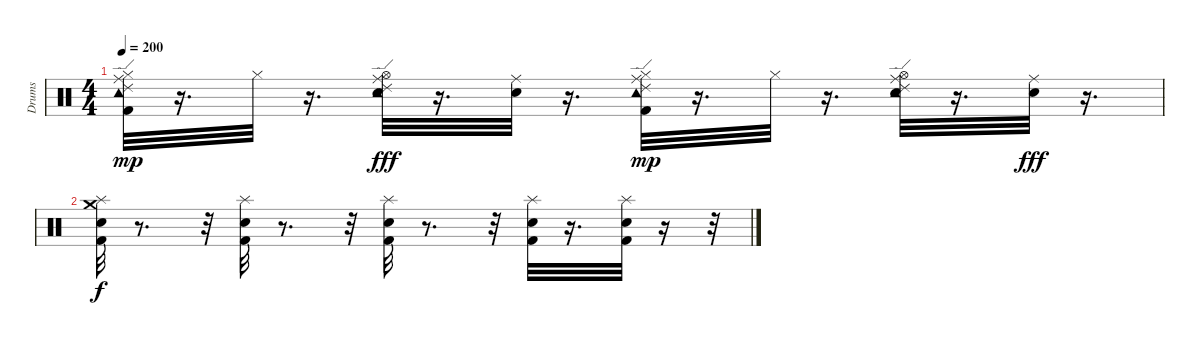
\track ("Drums" "Drums") {instrument percussion}
\staff {score}
\articulation defaults
\ts (4 4)
\tempo 200
\clef neutral
\ks c
("Ride (middle)" "Tambourine (hit)" "Hi-Hat (closed)" "Kick (hit) 2" "Ride (edge) 2").32{dy mp} r.16{d} "Hi-Hat (closed)".32 r.16{d} ("Ride (middle)" "Ride (edge) 2" "Hi-Hat (open)" "Electric Snare (hit)" "Tambourine (hit)").32{dy fff} r.16{d} ("Ride (middle)" "Electric Snare (hit)").32 r.16{d} ("Ride (middle)" "Tambourine (hit)" "Kick (hit) 2" "Hi-Hat (closed)" "Ride (edge) 2").32{dy mp} r.16{d} "Hi-Hat (closed)".32 r.16{d} ("Ride (middle)" "Tambourine (hit)" "Hi-Hat (open)" "Electric Snare (hit)" "Ride (edge) 2").32 r.16{d} ("Electric Snare (hit)" "Ride (middle)").32{dy fff} r.16{d} |
("Splash (hit)" "Crash medium (hit)" "Electric Snare (hit)" "Kick (hit) 2").32{dy f} r.8{d} r.32 ("Splash (hit)" "Electric Snare (hit)" "Kick (hit) 2").32 r.8{d} r.32 ("Splash (hit)" "Electric Snare (hit)" "Kick (hit) 2").32 r.8{d} r.32 ("Splash (hit)" "Electric Snare (hit)" "Kick (hit) 2").32 r.16{d} ("Splash (hit)" "Electric Snare (hit)" "Kick (hit) 2").32 r.16 r.32
